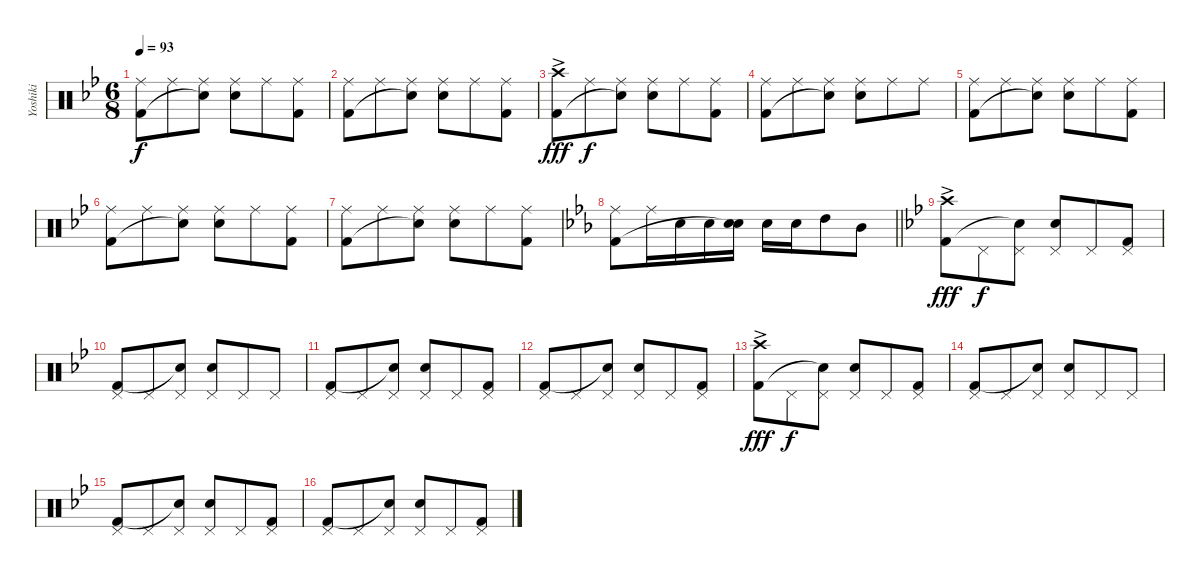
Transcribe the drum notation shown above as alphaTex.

\track ("Yoshiki" "Yoshiki") {instrument percussion}
\staff {score}
\articulation defaults
\ts (6 8)
\tempo 93
\clef neutral
\ks bb
("Ride (middle)" "Kick (hit) 2").8{dy f} "Ride (middle)".8 ("Ride (middle)" "Snare (hit)"{t}).8 ("Ride (middle)" "Snare (hit) 2").8 "Ride (middle)".8 ("Ride (middle)" "Kick (hit) 2").8 |
("Ride (middle)" "Kick (hit) 2").8 "Ride (middle)".8 ("Ride (middle)" "Snare (hit)"{t}).8 ("Ride (middle)" "Snare (hit) 2").8 "Ride (middle)".8 ("Ride (middle)" "Kick (hit) 2").8 |
("Crash high (hit)"{ac} "Kick (hit) 2"{ac}).8{dy fff} "Ride (middle)".8{dy f} ("Ride (middle)" "Snare (hit)"{t}).8 ("Ride (middle)" "Snare (hit) 2").8 "Ride (middle)".8 ("Ride (middle)" "Kick (hit) 2").8 |
("Ride (middle)" "Kick (hit) 2").8 "Ride (middle)".8 ("Ride (middle)" "Snare (hit)"{t}).8 ("Ride (middle)" "Snare (hit) 2").8 "Ride (middle)".8 "Ride (middle)".8 |
("Ride (middle)" "Kick (hit) 2").8 "Ride (middle)".8 ("Ride (middle)" "Snare (hit)"{t}).8 ("Ride (middle)" "Snare (hit) 2").8 "Ride (middle)".8 ("Ride (middle)" "Kick (hit) 2").8 |
("Ride (middle)" "Kick (hit) 2").8 "Ride (middle)".8 ("Ride (middle)" "Snare (hit)"{t}).8 ("Ride (middle)" "Snare (hit) 2").8 "Ride (middle)".8 ("Ride (middle)" "Kick (hit) 2").8 |
("Ride (middle)" "Kick (hit) 2").8 "Ride (middle)".8 ("Ride (middle)" "Snare (hit)"{t}).8 ("Ride (middle)" "Snare (hit) 2").8 "Ride (middle)".8 ("Ride (middle)" "Kick (hit) 2").8 |
\barLineRight lightlight
\ks eb
("Ride (middle)" "Kick (hit) 2").8 "Ride (middle)".16 "Snare (hit) 2".16 "Snare (hit) 2".16 ("Snare (hit) 2" "Snare (hit)"{t}).16 "Snare (hit) 2".16 "Snare (hit) 2".16 "High Tom (hit)".8 "Mid Tom (hit)".8 |
\ks bb
("Crash high (hit)"{ac} "Kick (hit) 2"{ac}).8{dy fff} "Pedal Hi-Hat (hit)".8{dy f} ("Pedal Hi-Hat (hit)" "Snare (hit)"{t}).8 ("Pedal Hi-Hat (hit)" "Snare (hit) 2").8 "Pedal Hi-Hat (hit)".8 ("Pedal Hi-Hat (hit)" "Kick (hit) 2").8 |
("Pedal Hi-Hat (hit)" "Kick (hit) 2").8 "Pedal Hi-Hat (hit)".8 ("Pedal Hi-Hat (hit)" "Snare (hit)"{t}).8 ("Pedal Hi-Hat (hit)" "Snare (hit) 2").8 "Pedal Hi-Hat (hit)".8 "Pedal Hi-Hat (hit)".8 |
("Pedal Hi-Hat (hit)" "Kick (hit) 2").8 "Pedal Hi-Hat (hit)".8 ("Pedal Hi-Hat (hit)" "Snare (hit)"{t}).8 ("Pedal Hi-Hat (hit)" "Snare (hit) 2").8 "Pedal Hi-Hat (hit)".8 ("Pedal Hi-Hat (hit)" "Kick (hit) 2").8 |
("Pedal Hi-Hat (hit)" "Kick (hit) 2").8 "Pedal Hi-Hat (hit)".8 ("Pedal Hi-Hat (hit)" "Snare (hit)"{t}).8 ("Pedal Hi-Hat (hit)" "Snare (hit) 2").8 "Pedal Hi-Hat (hit)".8 ("Pedal Hi-Hat (hit)" "Kick (hit) 2").8 |
("Crash high (hit)"{ac} "Kick (hit) 2"{ac}).8{dy fff} "Pedal Hi-Hat (hit)".8{dy f} ("Pedal Hi-Hat (hit)" "Snare (hit)"{t}).8 ("Pedal Hi-Hat (hit)" "Snare (hit) 2").8 "Pedal Hi-Hat (hit)".8 ("Pedal Hi-Hat (hit)" "Kick (hit) 2").8 |
("Pedal Hi-Hat (hit)" "Kick (hit) 2").8 "Pedal Hi-Hat (hit)".8 ("Pedal Hi-Hat (hit)" "Snare (hit)"{t}).8 ("Pedal Hi-Hat (hit)" "Snare (hit) 2").8 "Pedal Hi-Hat (hit)".8 "Pedal Hi-Hat (hit)".8 |
("Pedal Hi-Hat (hit)" "Kick (hit) 2").8 "Pedal Hi-Hat (hit)".8 ("Pedal Hi-Hat (hit)" "Snare (hit)"{t}).8 ("Pedal Hi-Hat (hit)" "Snare (hit) 2").8 "Pedal Hi-Hat (hit)".8 ("Pedal Hi-Hat (hit)" "Kick (hit) 2").8 |
("Pedal Hi-Hat (hit)" "Kick (hit) 2").8 "Pedal Hi-Hat (hit)".8 ("Pedal Hi-Hat (hit)" "Snare (hit)"{t}).8 ("Pedal Hi-Hat (hit)" "Snare (hit) 2").8 "Pedal Hi-Hat (hit)".8 ("Pedal Hi-Hat (hit)" "Kick (hit) 2").8
